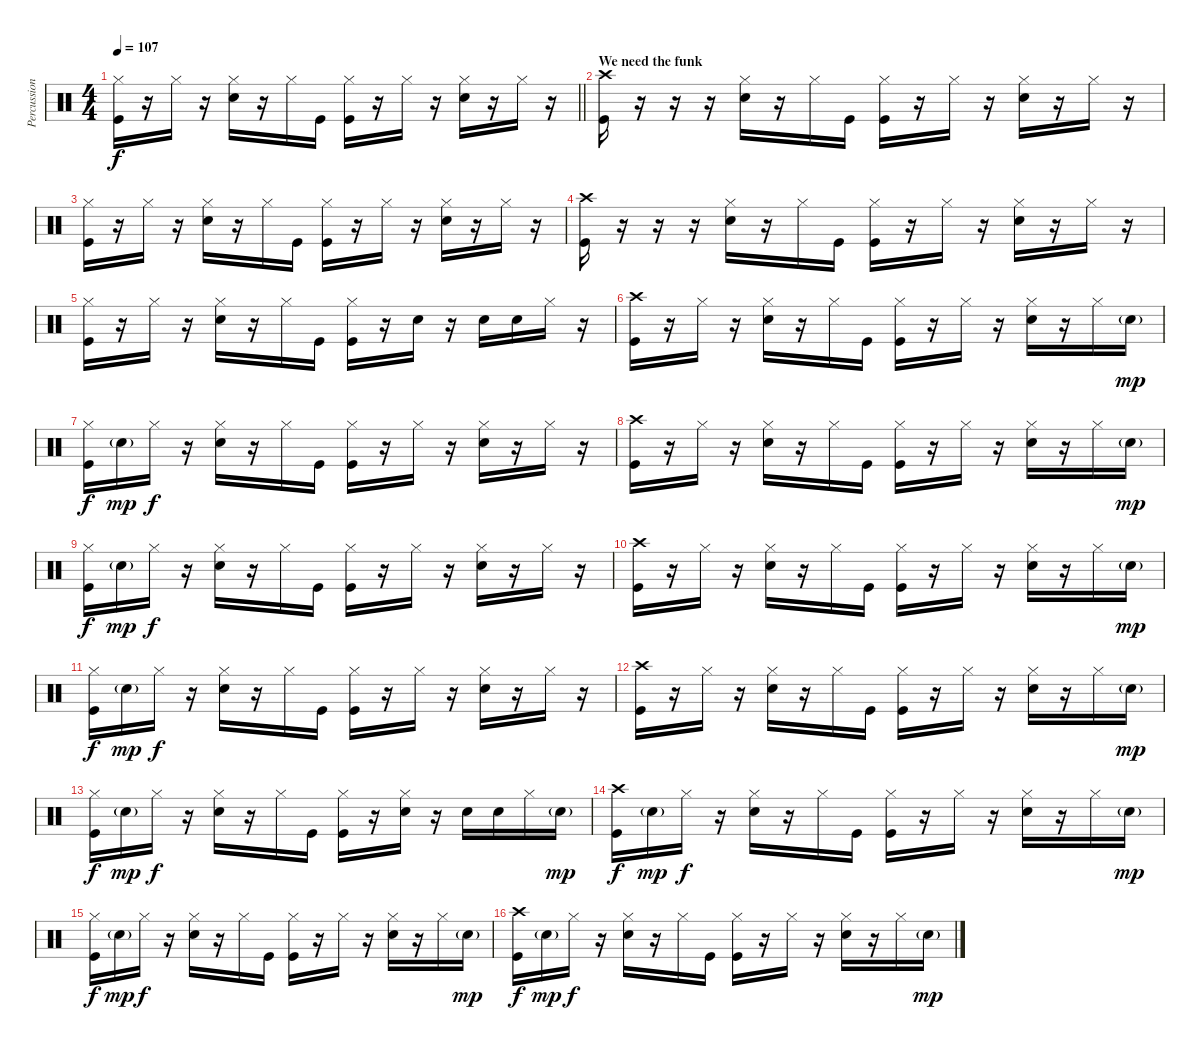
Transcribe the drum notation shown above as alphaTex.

\track ("Percussion" "Percussion") {instrument percussion}
\staff {score}
\articulation defaults
\ts (4 4)
\tempo 107
\clef neutral
\barLineRight lightlight
\ks c
("Hi-Hat (closed)" "Kick (hit)").16{dy f} r.16 "Hi-Hat (closed)".16 r.16 ("Hi-Hat (closed)" "Snare (hit) 2").16 r.16 "Hi-Hat (closed)".16 "Kick (hit)".16 ("Hi-Hat (closed)" "Kick (hit)").16 r.16 "Hi-Hat (closed)".16 r.16 ("Hi-Hat (closed)" "Snare (hit) 2").16 r.16 "Hi-Hat (closed)".16 r.16 |
\section ("" "We need the funk")
("Crash high (hit)" "Kick (hit)").16 r.16 r.16 r.16 ("Hi-Hat (closed)" "Snare (hit) 2").16 r.16 "Hi-Hat (closed)".16 "Kick (hit)".16 ("Hi-Hat (closed)" "Kick (hit)").16 r.16 "Hi-Hat (closed)".16 r.16 ("Hi-Hat (closed)" "Snare (hit) 2").16 r.16 "Hi-Hat (closed)".16 r.16 |
("Hi-Hat (closed)" "Kick (hit)").16 r.16 "Hi-Hat (closed)".16 r.16 ("Hi-Hat (closed)" "Snare (hit) 2").16 r.16 "Hi-Hat (closed)".16 "Kick (hit)".16 ("Hi-Hat (closed)" "Kick (hit)").16 r.16 "Hi-Hat (closed)".16 r.16 ("Hi-Hat (closed)" "Snare (hit) 2").16 r.16 "Hi-Hat (closed)".16 r.16 |
("Crash high (hit)" "Kick (hit)").16 r.16 r.16 r.16 ("Hi-Hat (closed)" "Snare (hit) 2").16 r.16 "Hi-Hat (closed)".16 "Kick (hit)".16 ("Hi-Hat (closed)" "Kick (hit)").16 r.16 "Hi-Hat (closed)".16 r.16 ("Hi-Hat (closed)" "Snare (hit) 2").16 r.16 "Hi-Hat (closed)".16 r.16 |
("Hi-Hat (closed)" "Kick (hit)").16 r.16 "Hi-Hat (closed)".16 r.16 ("Hi-Hat (closed)" "Snare (hit) 2").16 r.16 "Hi-Hat (closed)".16 "Kick (hit)".16 ("Hi-Hat (closed)" "Kick (hit)").16 r.16 "Snare (hit) 2".16 r.16 "Snare (hit) 2".16 "Snare (hit) 2".16 "Hi-Hat (closed)".16 r.16 |
("Crash high (hit)" "Kick (hit)").16 r.16 "Hi-Hat (closed)".16 r.16 ("Hi-Hat (closed)" "Snare (hit) 2").16 r.16 "Hi-Hat (closed)".16 "Kick (hit)".16 ("Hi-Hat (closed)" "Kick (hit)").16 r.16 "Hi-Hat (closed)".16 r.16 ("Hi-Hat (closed)" "Snare (hit) 2").16 r.16 "Hi-Hat (closed)".16 "Snare (hit) 2"{g}.16{dy mp} |
("Hi-Hat (closed)" "Kick (hit)").16{dy f} "Snare (hit) 2"{g}.16{dy mp} "Hi-Hat (closed)".16{dy f} r.16 ("Hi-Hat (closed)" "Snare (hit) 2").16 r.16 "Hi-Hat (closed)".16 "Kick (hit)".16 ("Hi-Hat (closed)" "Kick (hit)").16 r.16 "Hi-Hat (closed)".16 r.16 ("Hi-Hat (closed)" "Snare (hit) 2").16 r.16 "Hi-Hat (closed)".16 r.16 |
("Crash high (hit)" "Kick (hit)").16 r.16 "Hi-Hat (closed)".16 r.16 ("Hi-Hat (closed)" "Snare (hit) 2").16 r.16 "Hi-Hat (closed)".16 "Kick (hit)".16 ("Hi-Hat (closed)" "Kick (hit)").16 r.16 "Hi-Hat (closed)".16 r.16 ("Hi-Hat (closed)" "Snare (hit) 2").16 r.16 "Hi-Hat (closed)".16 "Snare (hit) 2"{g}.16{dy mp} |
("Hi-Hat (closed)" "Kick (hit)").16{dy f} "Snare (hit) 2"{g}.16{dy mp} "Hi-Hat (closed)".16{dy f} r.16 ("Hi-Hat (closed)" "Snare (hit) 2").16 r.16 "Hi-Hat (closed)".16 "Kick (hit)".16 ("Hi-Hat (closed)" "Kick (hit)").16 r.16 "Hi-Hat (closed)".16 r.16 ("Hi-Hat (closed)" "Snare (hit) 2").16 r.16 "Hi-Hat (closed)".16 r.16 |
("Crash high (hit)" "Kick (hit)").16 r.16 "Hi-Hat (closed)".16 r.16 ("Hi-Hat (closed)" "Snare (hit) 2").16 r.16 "Hi-Hat (closed)".16 "Kick (hit)".16 ("Hi-Hat (closed)" "Kick (hit)").16 r.16 "Hi-Hat (closed)".16 r.16 ("Hi-Hat (closed)" "Snare (hit) 2").16 r.16 "Hi-Hat (closed)".16 "Snare (hit) 2"{g}.16{dy mp} |
("Hi-Hat (closed)" "Kick (hit)").16{dy f} "Snare (hit) 2"{g}.16{dy mp} "Hi-Hat (closed)".16{dy f} r.16 ("Hi-Hat (closed)" "Snare (hit) 2").16 r.16 "Hi-Hat (closed)".16 "Kick (hit)".16 ("Hi-Hat (closed)" "Kick (hit)").16 r.16 "Hi-Hat (closed)".16 r.16 ("Hi-Hat (closed)" "Snare (hit) 2").16 r.16 "Hi-Hat (closed)".16 r.16 |
("Crash high (hit)" "Kick (hit)").16 r.16 "Hi-Hat (closed)".16 r.16 ("Hi-Hat (closed)" "Snare (hit) 2").16 r.16 "Hi-Hat (closed)".16 "Kick (hit)".16 ("Hi-Hat (closed)" "Kick (hit)").16 r.16 "Hi-Hat (closed)".16 r.16 ("Hi-Hat (closed)" "Snare (hit) 2").16 r.16 "Hi-Hat (closed)".16 "Snare (hit) 2"{g}.16{dy mp} |
("Hi-Hat (closed)" "Kick (hit)").16{dy f} "Snare (hit) 2"{g}.16{dy mp} "Hi-Hat (closed)".16{dy f} r.16 ("Hi-Hat (closed)" "Snare (hit) 2").16 r.16 "Hi-Hat (closed)".16 "Kick (hit)".16 ("Hi-Hat (closed)" "Kick (hit)").16 r.16 ("Hi-Hat (closed)" "Snare (hit) 2").16 r.16 "Snare (hit) 2".16 "Snare (hit) 2".16 "Hi-Hat (closed)".16 "Snare (hit) 2"{g}.16{dy mp} |
("Crash high (hit)" "Kick (hit)").16{dy f} "Snare (hit) 2"{g}.16{dy mp} "Hi-Hat (closed)".16{dy f} r.16 ("Hi-Hat (closed)" "Snare (hit) 2").16 r.16 "Hi-Hat (closed)".16 "Kick (hit)".16 ("Hi-Hat (closed)" "Kick (hit)").16 r.16 "Hi-Hat (closed)".16 r.16 ("Hi-Hat (closed)" "Snare (hit) 2").16 r.16 "Hi-Hat (closed)".16 "Snare (hit) 2"{g}.16{dy mp} |
("Hi-Hat (closed)" "Kick (hit)").16{dy f} "Snare (hit) 2"{g}.16{dy mp} "Hi-Hat (closed)".16{dy f} r.16 ("Hi-Hat (closed)" "Snare (hit) 2").16 r.16 "Hi-Hat (closed)".16 "Kick (hit)".16 ("Hi-Hat (closed)" "Kick (hit)").16 r.16 "Hi-Hat (closed)".16 r.16 ("Hi-Hat (closed)" "Snare (hit) 2").16 r.16 "Hi-Hat (closed)".16 "Snare (hit) 2"{g}.16{dy mp} |
("Crash high (hit)" "Kick (hit)").16{dy f} "Snare (hit) 2"{g}.16{dy mp} "Hi-Hat (closed)".16{dy f} r.16 ("Hi-Hat (closed)" "Snare (hit) 2").16 r.16 "Hi-Hat (closed)".16 "Kick (hit)".16 ("Hi-Hat (closed)" "Kick (hit)").16 r.16 "Hi-Hat (closed)".16 r.16 ("Hi-Hat (closed)" "Snare (hit) 2").16 r.16 "Hi-Hat (closed)".16 "Snare (hit) 2"{g}.16{dy mp}
